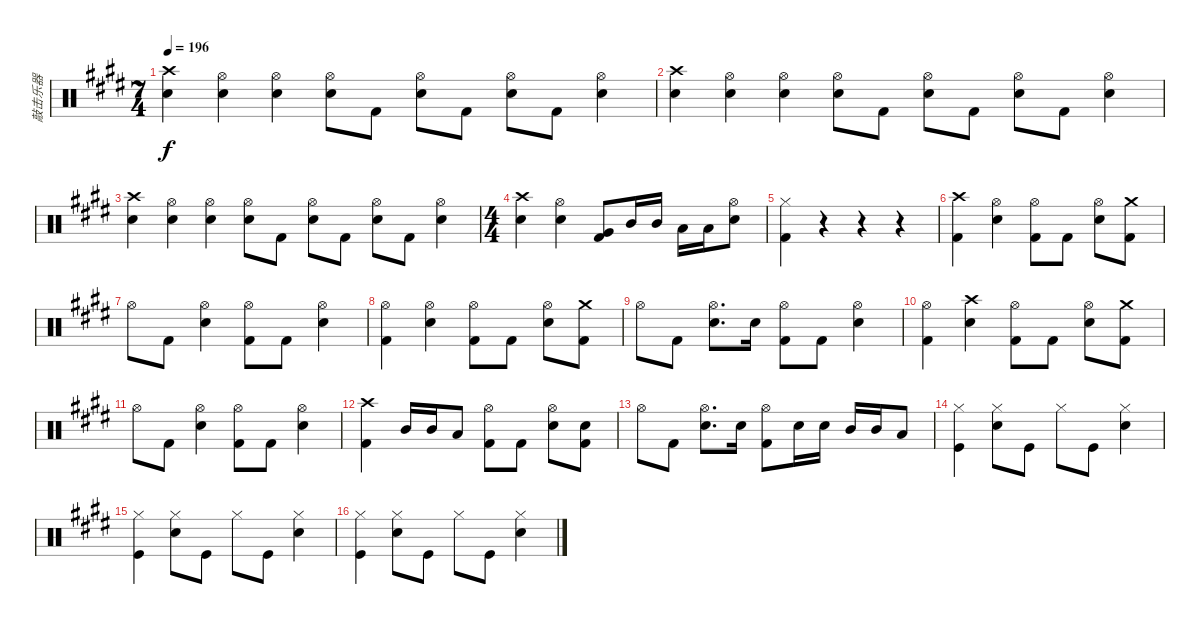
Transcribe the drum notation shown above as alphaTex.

\track ("敲击乐器" "敲击乐器") {instrument percussion}
\staff {score}
\articulation defaults
\ts (7 4)
\tempo 196
\clef neutral
\ks e
("Crash high (hit)" "Snare (hit) 2").4{dy f} ("Hi-Hat (open)" "Snare (hit) 2").4 ("Hi-Hat (open)" "Snare (hit) 2").4 ("Hi-Hat (open)" "Snare (hit) 2").8 "Kick (hit) 2".8 ("Hi-Hat (open)" "Snare (hit) 2").8 "Kick (hit) 2".8 ("Hi-Hat (open)" "Snare (hit) 2").8 "Kick (hit) 2".8 ("Hi-Hat (open)" "Snare (hit) 2").4 |
\ks c#minor
("Crash high (hit)" "Snare (hit) 2").4 ("Hi-Hat (open)" "Snare (hit) 2").4 ("Hi-Hat (open)" "Snare (hit) 2").4 ("Hi-Hat (open)" "Snare (hit) 2").8 "Kick (hit) 2".8 ("Hi-Hat (open)" "Snare (hit) 2").8 "Kick (hit) 2".8 ("Hi-Hat (open)" "Snare (hit) 2").8 "Kick (hit) 2".8 ("Hi-Hat (open)" "Snare (hit) 2").4 |
("Crash high (hit)" "Snare (hit) 2").4 ("Hi-Hat (open)" "Snare (hit) 2").4 ("Hi-Hat (open)" "Snare (hit) 2").4 ("Hi-Hat (open)" "Snare (hit) 2").8 "Kick (hit) 2".8 ("Hi-Hat (open)" "Snare (hit) 2").8 "Kick (hit) 2".8 ("Hi-Hat (open)" "Snare (hit) 2").8 "Kick (hit) 2".8 ("Hi-Hat (open)" "Snare (hit) 2").4 |
\ts (4 4)
\ks e
("Crash high (hit)" "Snare (hit) 2").4 ("Hi-Hat (open)" "Snare (hit) 2").4 ("Very Low Tom (hit)" "Kick (hit) 2").8 "Mid Tom (hit)".16 "Mid Tom (hit)".16 "Low Tom (hit)".16 "Low Tom (hit)".16 ("Hi-Hat (open)" "Snare (hit) 2").8 |
\ks c#minor
("Hi-Hat (closed)" "Kick (hit) 2").4 r.4 r.4 r.4 |
\ks e
("Crash high (hit)" "Kick (hit) 2").4 ("Hi-Hat (open)" "Snare (hit) 2").4 ("Hi-Hat (open)" "Kick (hit) 2").8 "Kick (hit) 2".8 ("Hi-Hat (open)" "Snare (hit) 2").8 ("Crash medium (hit)" "Kick (hit) 2").8 |
\ks c#minor "Hi-Hat (open)".8 "Kick (hit) 2".8
("Hi-Hat (open)" "Snare (hit) 2").4 ("Hi-Hat (open)" "Kick (hit) 2").8 "Kick (hit) 2".8 ("Hi-Hat (open)" "Snare (hit) 2").4 |
\ks e
("Hi-Hat (open)" "Kick (hit) 2").4 ("Hi-Hat (open)" "Snare (hit) 2").4 ("Hi-Hat (open)" "Kick (hit) 2").8 "Kick (hit) 2".8 ("Hi-Hat (open)" "Snare (hit) 2").8 ("Crash medium (hit)" "Kick (hit) 2").8 |
\ks c#minor "Hi-Hat (open)".8 "Kick (hit) 2".8
("Hi-Hat (open)" "Snare (hit) 2").8{d} "Snare (hit) 2".16 ("Hi-Hat (open)" "Kick (hit) 2").8 "Kick (hit) 2".8 ("Hi-Hat (open)" "Snare (hit) 2").4 |
\ks e
("Hi-Hat (open)" "Kick (hit) 2").4 ("Crash high (hit)" "Snare (hit) 2").4 ("Hi-Hat (open)" "Kick (hit) 2").8 "Kick (hit) 2".8 ("Hi-Hat (open)" "Snare (hit) 2").8 ("Crash medium (hit)" "Kick (hit) 2").8 |
\ks c#minor "Hi-Hat (open)".8 "Kick (hit) 2".8
("Hi-Hat (open)" "Snare (hit) 2").4 ("Hi-Hat (open)" "Kick (hit) 2").8 "Kick (hit) 2".8 ("Hi-Hat (open)" "Snare (hit) 2").4 |
\ks e
("Crash high (hit)" "Kick (hit) 2").4 "Mid Tom (hit)".16 "Mid Tom (hit)".16 "Low Tom (hit)".8 ("Hi-Hat (open)" "Kick (hit) 2").8 "Kick (hit) 2".8 ("Hi-Hat (open)" "Snare (hit) 2").8 ("Snare (hit) 2" "Kick (hit) 2").8 |
\ks c#minor "Hi-Hat (open)".8 "Kick (hit) 2".8
("Hi-Hat (open)" "Snare (hit) 2").8{d} "Snare (hit) 2".16 ("Hi-Hat (open)" "Kick (hit) 2").8 "Snare (hit) 2".16 "Snare (hit) 2".16 "Mid Tom (hit)".16 "Mid Tom (hit)".16 "Low Tom (hit)".8 |
\ks e
("Hi-Hat (closed)" "Kick (hit)").4 ("Hi-Hat (closed)" "Snare (hit) 2").8 "Kick (hit)".8 "Hi-Hat (closed)".8 "Kick (hit)".8 ("Hi-Hat (closed)" "Snare (hit) 2").4 |
\ks c#minor
("Hi-Hat (closed)" "Kick (hit)").4 ("Hi-Hat (closed)" "Snare (hit) 2").8 "Kick (hit)".8 "Hi-Hat (closed)".8 "Kick (hit)".8 ("Hi-Hat (closed)" "Snare (hit) 2").4 |
("Hi-Hat (closed)" "Kick (hit)").4 ("Hi-Hat (closed)" "Snare (hit) 2").8 "Kick (hit)".8 "Hi-Hat (closed)".8 "Kick (hit)".8 ("Hi-Hat (closed)" "Snare (hit) 2").4
